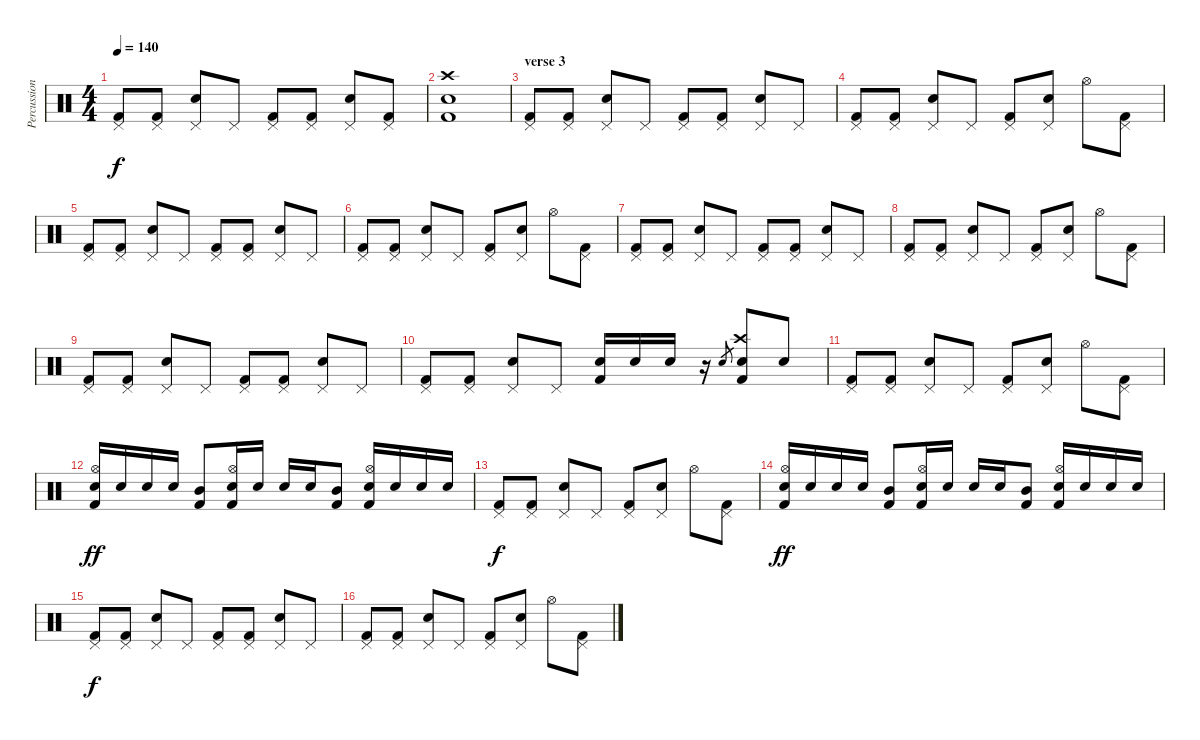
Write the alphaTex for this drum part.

\track ("Percussions" "Percussion") {instrument percussion}
\staff {score}
\articulation defaults
\ts (4 4)
\tempo 140
\clef neutral
\ks c
("Pedal Hi-Hat (hit)" "Kick (hit) 2").8{dy f} ("Pedal Hi-Hat (hit)" "Kick (hit) 2").8 ("Pedal Hi-Hat (hit)" "Snare (hit) 2").8 "Pedal Hi-Hat (hit)".8 ("Pedal Hi-Hat (hit)" "Kick (hit) 2").8 ("Pedal Hi-Hat (hit)" "Kick (hit) 2").8 ("Pedal Hi-Hat (hit)" "Snare (hit) 2").8 ("Pedal Hi-Hat (hit)" "Kick (hit) 2").8 |
("Crash high (hit)" "Snare (hit) 2" "Kick (hit) 2").1 |
\section ("" "verse 3")
("Pedal Hi-Hat (hit)" "Kick (hit) 2").8 ("Pedal Hi-Hat (hit)" "Kick (hit) 2").8 ("Pedal Hi-Hat (hit)" "Snare (hit) 2").8 "Pedal Hi-Hat (hit)".8 ("Pedal Hi-Hat (hit)" "Kick (hit) 2").8 ("Pedal Hi-Hat (hit)" "Kick (hit) 2").8 ("Pedal Hi-Hat (hit)" "Snare (hit) 2").8 "Pedal Hi-Hat (hit)".8 |
("Pedal Hi-Hat (hit)" "Kick (hit) 2").8 ("Pedal Hi-Hat (hit)" "Kick (hit) 2").8 ("Pedal Hi-Hat (hit)" "Snare (hit) 2").8 "Pedal Hi-Hat (hit)".8 ("Pedal Hi-Hat (hit)" "Kick (hit) 2").8 ("Pedal Hi-Hat (hit)" "Snare (hit) 2").8 "Hi-Hat (open)".8 ("Pedal Hi-Hat (hit)" "Kick (hit) 2").8 |
("Pedal Hi-Hat (hit)" "Kick (hit) 2").8 ("Pedal Hi-Hat (hit)" "Kick (hit) 2").8 ("Pedal Hi-Hat (hit)" "Snare (hit) 2").8 "Pedal Hi-Hat (hit)".8 ("Pedal Hi-Hat (hit)" "Kick (hit) 2").8 ("Pedal Hi-Hat (hit)" "Kick (hit) 2").8 ("Pedal Hi-Hat (hit)" "Snare (hit) 2").8 "Pedal Hi-Hat (hit)".8 |
("Pedal Hi-Hat (hit)" "Kick (hit) 2").8 ("Pedal Hi-Hat (hit)" "Kick (hit) 2").8 ("Pedal Hi-Hat (hit)" "Snare (hit) 2").8 "Pedal Hi-Hat (hit)".8 ("Pedal Hi-Hat (hit)" "Kick (hit) 2").8 ("Pedal Hi-Hat (hit)" "Snare (hit) 2").8 "Hi-Hat (open)".8 ("Pedal Hi-Hat (hit)" "Kick (hit) 2").8 |
("Pedal Hi-Hat (hit)" "Kick (hit) 2").8 ("Pedal Hi-Hat (hit)" "Kick (hit) 2").8 ("Pedal Hi-Hat (hit)" "Snare (hit) 2").8 "Pedal Hi-Hat (hit)".8 ("Pedal Hi-Hat (hit)" "Kick (hit) 2").8 ("Pedal Hi-Hat (hit)" "Kick (hit) 2").8 ("Pedal Hi-Hat (hit)" "Snare (hit) 2").8 "Pedal Hi-Hat (hit)".8 |
("Pedal Hi-Hat (hit)" "Kick (hit) 2").8 ("Pedal Hi-Hat (hit)" "Kick (hit) 2").8 ("Pedal Hi-Hat (hit)" "Snare (hit) 2").8 "Pedal Hi-Hat (hit)".8 ("Pedal Hi-Hat (hit)" "Kick (hit) 2").8 ("Pedal Hi-Hat (hit)" "Snare (hit) 2").8 "Hi-Hat (open)".8 ("Pedal Hi-Hat (hit)" "Kick (hit) 2").8 |
("Pedal Hi-Hat (hit)" "Kick (hit) 2").8 ("Pedal Hi-Hat (hit)" "Kick (hit) 2").8 ("Pedal Hi-Hat (hit)" "Snare (hit) 2").8 "Pedal Hi-Hat (hit)".8 ("Pedal Hi-Hat (hit)" "Kick (hit) 2").8 ("Pedal Hi-Hat (hit)" "Kick (hit) 2").8 ("Pedal Hi-Hat (hit)" "Snare (hit) 2").8 "Pedal Hi-Hat (hit)".8 |
("Pedal Hi-Hat (hit)" "Kick (hit) 2").8 ("Pedal Hi-Hat (hit)" "Kick (hit) 2").8 ("Pedal Hi-Hat (hit)" "Snare (hit) 2").8 "Pedal Hi-Hat (hit)".8 ("Electric Snare (hit)" "Kick (hit) 2").16 "Snare (hit) 2".16 "Electric Snare (hit)".16 r.16 "Snare (hit) 2".8{gr} ("Crash high (hit)" "Electric Snare (hit)" "Kick (hit) 2").8 "Snare (hit) 2".8 |
("Pedal Hi-Hat (hit)" "Kick (hit) 2").8 ("Pedal Hi-Hat (hit)" "Kick (hit) 2").8 ("Pedal Hi-Hat (hit)" "Snare (hit) 2").8 "Pedal Hi-Hat (hit)".8 ("Pedal Hi-Hat (hit)" "Kick (hit) 2").8 ("Pedal Hi-Hat (hit)" "Snare (hit) 2").8 "Hi-Hat (open)".8 ("Pedal Hi-Hat (hit)" "Kick (hit) 2").8 |
("Hi-Hat (open)" "Electric Snare (hit)" "Kick (hit) 2").16{dy ff} "Electric Snare (hit)".16 "Snare (hit) 2".16 "Snare (hit) 2".16 ("Mid Tom (hit)" "Kick (hit) 2").8 ("Hi-Hat (open)" "Electric Snare (hit)" "Kick (hit) 2").16 "Electric Snare (hit)".16 "Snare (hit) 2".16 "Snare (hit) 2".16 ("Mid Tom (hit)" "Kick (hit) 2").8 ("Hi-Hat (open)" "Electric Snare (hit)" "Kick (hit) 2").16 "Electric Snare (hit)".16 "Snare (hit) 2".16 "Snare (hit) 2".16 |
("Pedal Hi-Hat (hit)" "Kick (hit) 2").8{dy f} ("Pedal Hi-Hat (hit)" "Kick (hit) 2").8 ("Pedal Hi-Hat (hit)" "Snare (hit) 2").8 "Pedal Hi-Hat (hit)".8 ("Pedal Hi-Hat (hit)" "Kick (hit) 2").8 ("Pedal Hi-Hat (hit)" "Snare (hit) 2").8 "Hi-Hat (open)".8 ("Pedal Hi-Hat (hit)" "Kick (hit) 2").8 |
("Hi-Hat (open)" "Electric Snare (hit)" "Kick (hit) 2").16{dy ff} "Electric Snare (hit)".16 "Snare (hit) 2".16 "Snare (hit) 2".16 ("Mid Tom (hit)" "Kick (hit) 2").8 ("Hi-Hat (open)" "Electric Snare (hit)" "Kick (hit) 2").16 "Electric Snare (hit)".16 "Snare (hit) 2".16 "Snare (hit) 2".16 ("Mid Tom (hit)" "Kick (hit) 2").8 ("Hi-Hat (open)" "Electric Snare (hit)" "Kick (hit) 2").16 "Electric Snare (hit)".16 "Snare (hit) 2".16 "Snare (hit) 2".16 |
("Pedal Hi-Hat (hit)" "Kick (hit) 2").8{dy f} ("Pedal Hi-Hat (hit)" "Kick (hit) 2").8 ("Pedal Hi-Hat (hit)" "Snare (hit) 2").8 "Pedal Hi-Hat (hit)".8 ("Pedal Hi-Hat (hit)" "Kick (hit) 2").8 ("Pedal Hi-Hat (hit)" "Kick (hit) 2").8 ("Pedal Hi-Hat (hit)" "Snare (hit) 2").8 "Pedal Hi-Hat (hit)".8 |
("Pedal Hi-Hat (hit)" "Kick (hit) 2").8 ("Pedal Hi-Hat (hit)" "Kick (hit) 2").8 ("Pedal Hi-Hat (hit)" "Snare (hit) 2").8 "Pedal Hi-Hat (hit)".8 ("Pedal Hi-Hat (hit)" "Kick (hit) 2").8 ("Pedal Hi-Hat (hit)" "Snare (hit) 2").8 "Hi-Hat (open)".8 ("Pedal Hi-Hat (hit)" "Kick (hit) 2").8
